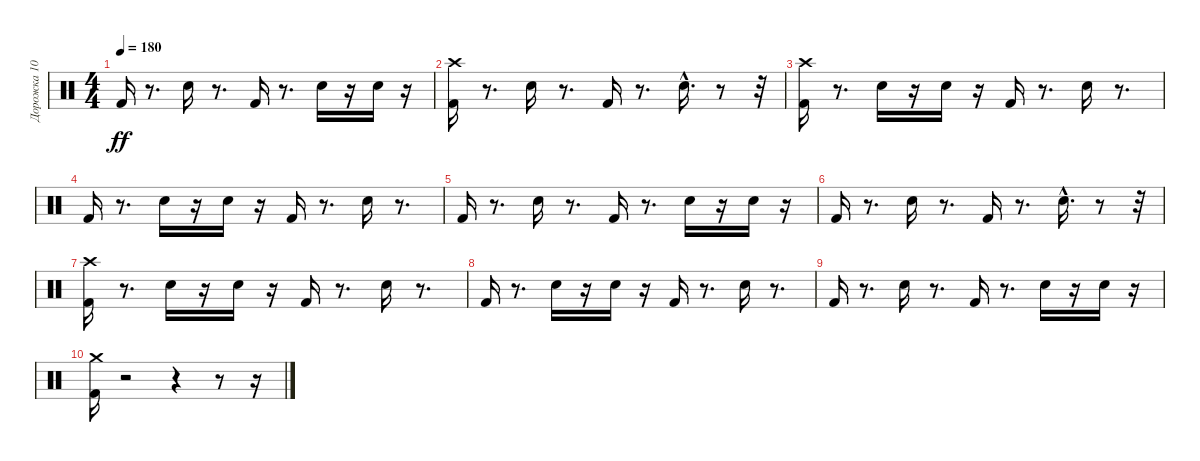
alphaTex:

\track ("Дорожка 10" "Дорожка 10") {instrument percussion}
\staff {score}
\articulation defaults
\ts (4 4)
\tempo 180
\clef neutral
\ks c "Kick (hit) 2".16{dy ff}
r.8{d} "Electric Snare (hit)".16 r.8{d} "Kick (hit) 2".16 r.8{d} "Electric Snare (hit)".16 r.16 "Electric Snare (hit)".16 r.16 |
("Kick (hit) 2" "Crash high (hit)").16 r.8{d} "Electric Snare (hit)".16 r.8{d} "Kick (hit) 2".16 r.8{d} "Electric Snare (hit)"{hac}.16{d} r.8 r.32 |
("Crash high (hit)" "Kick (hit) 2").16 r.8{d} "Electric Snare (hit)".16 r.16 "Electric Snare (hit)".16 r.16 "Kick (hit) 2".16 r.8{d} "Electric Snare (hit)".16 r.8{d} |
"Kick (hit) 2".16 r.8{d} "Electric Snare (hit)".16 r.16 "Electric Snare (hit)".16 r.16 "Kick (hit) 2".16 r.8{d} "Electric Snare (hit)".16 r.8{d} |
"Kick (hit) 2".16 r.8{d} "Electric Snare (hit)".16 r.8{d} "Kick (hit) 2".16 r.8{d} "Electric Snare (hit)".16 r.16 "Electric Snare (hit)".16 r.16 |
"Kick (hit) 2".16 r.8{d} "Electric Snare (hit)".16 r.8{d} "Kick (hit) 2".16 r.8{d} "Electric Snare (hit)"{hac}.16{d} r.8 r.32 |
("Crash high (hit)" "Kick (hit) 2").16 r.8{d} "Electric Snare (hit)".16 r.16 "Electric Snare (hit)".16 r.16 "Kick (hit) 2".16 r.8{d} "Electric Snare (hit)".16 r.8{d} |
"Kick (hit) 2".16 r.8{d} "Electric Snare (hit)".16 r.16 "Electric Snare (hit)".16 r.16 "Kick (hit) 2".16 r.8{d} "Electric Snare (hit)".16 r.8{d} |
"Kick (hit) 2".16 r.8{d} "Electric Snare (hit)".16 r.8{d} "Kick (hit) 2".16 r.8{d} "Electric Snare (hit)".16 r.16 "Electric Snare (hit)".16 r.16 |
("Crash medium (hit)" "Kick (hit) 2").16 r.2 r.4 r.8 r.16
